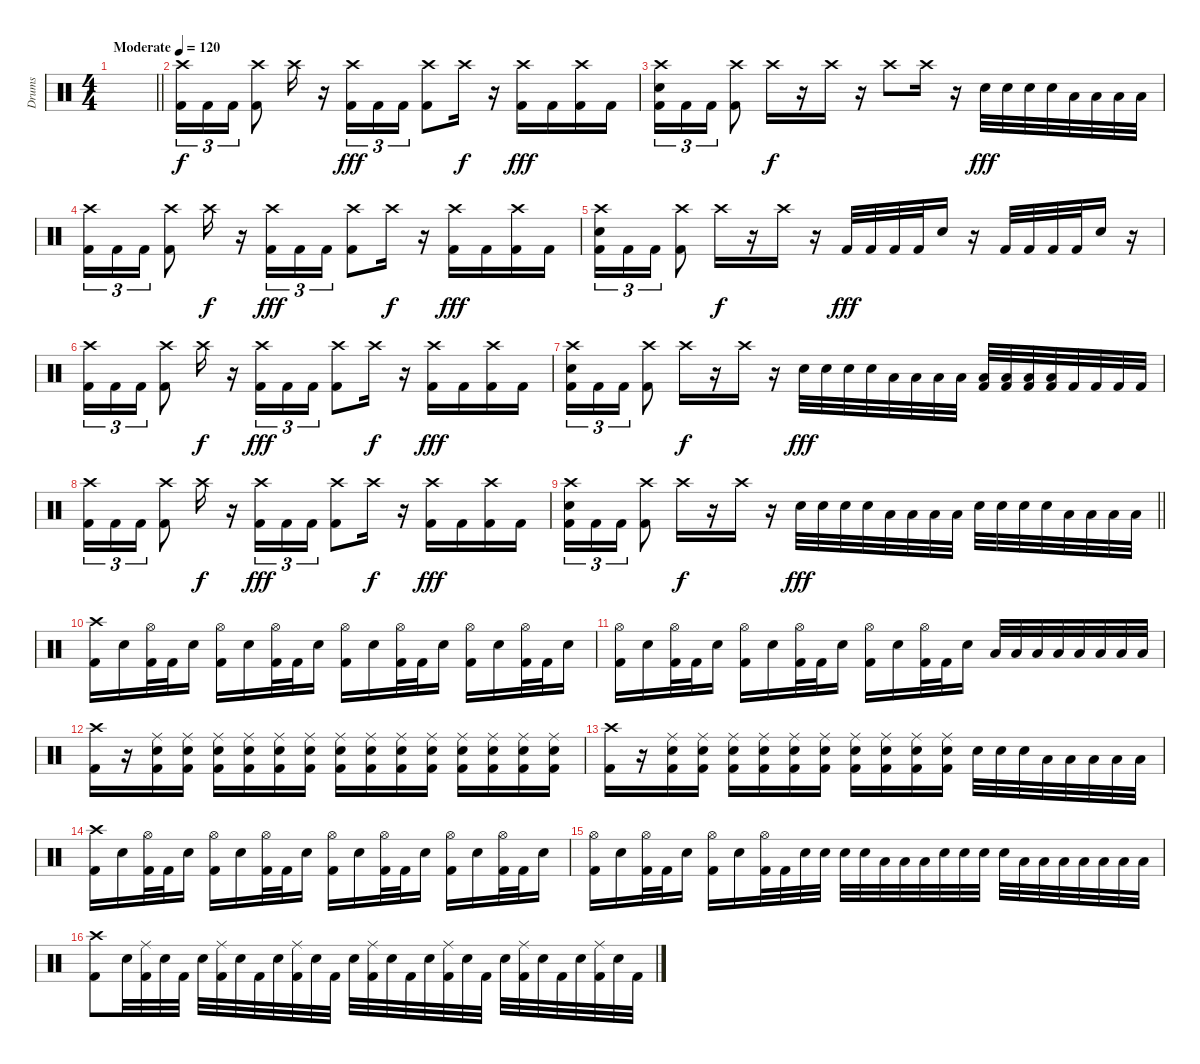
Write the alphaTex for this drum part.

\track ("Drums" "Drums") {instrument percussion}
\staff {score}
\articulation defaults
\ts (4 4)
\tempo (120 "Moderate")
\clef neutral
\barLineRight lightlight
\ks c
|
\section ("" "")
("Crash high (hit)" "Kick (hit) 2").16{tu (3 2) volume 8} "Kick (hit) 2".16{tu (3 2)} "Kick (hit) 2".16{tu (3 2)} ("Crash high (hit)" "Kick (hit) 2").8 "Crash high (hit)".16{dy f} r.16 ("Crash high (hit)" "Kick (hit) 2").16{tu (3 2) dy fff} "Kick (hit) 2".16{tu (3 2)} "Kick (hit) 2".16{tu (3 2)} ("Crash high (hit)" "Kick (hit) 2").8 "Crash high (hit)".16{dy f} r.16 ("Crash high (hit)" "Kick (hit) 2").16{dy fff} "Kick (hit) 2".16 ("Crash high (hit)" "Kick (hit) 2").16 "Kick (hit) 2".16 |
("Crash high (hit)" "Electric Snare (hit)" "Kick (hit) 2").16{tu (3 2)} "Kick (hit) 2".16{tu (3 2)} "Kick (hit) 2".16{tu (3 2)} ("Crash high (hit)" "Kick (hit) 2").8 "Crash high (hit)".16{dy f} r.16 "Crash high (hit)".16 r.16 "Crash high (hit)".8 "Crash high (hit)".16 r.16 "Electric Snare (hit)".32{dy fff} "Electric Snare (hit)".32 "Electric Snare (hit)".32 "Electric Snare (hit)".32 "Low Tom (hit)".32 "Low Tom (hit)".32 "Low Floor Tom (hit)".32 "Low Floor Tom (hit)".32 |
("Crash high (hit)" "Kick (hit) 2").16{tu (3 2)} "Kick (hit) 2".16{tu (3 2)} "Kick (hit) 2".16{tu (3 2)} ("Crash high (hit)" "Kick (hit) 2").8 "Crash high (hit)".16{dy f} r.16 ("Crash high (hit)" "Kick (hit) 2").16{tu (3 2) dy fff} "Kick (hit) 2".16{tu (3 2)} "Kick (hit) 2".16{tu (3 2)} ("Crash high (hit)" "Kick (hit) 2").8 "Crash high (hit)".16{dy f} r.16 ("Crash high (hit)" "Kick (hit) 2").16{dy fff} "Kick (hit) 2".16 ("Crash high (hit)" "Kick (hit) 2").16 "Kick (hit) 2".16 |
("Crash high (hit)" "Electric Snare (hit)" "Kick (hit) 2").16{tu (3 2)} "Kick (hit) 2".16{tu (3 2)} "Kick (hit) 2".16{tu (3 2)} ("Crash high (hit)" "Kick (hit) 2").8 "Crash high (hit)".16{dy f} r.16 "Crash high (hit)".16 r.16 "Kick (hit) 2".32{dy fff} "Kick (hit) 2".32 "Kick (hit) 2".32 "Kick (hit) 2".32 "Electric Snare (hit)".16 r.16 "Kick (hit) 2".32 "Kick (hit) 2".32 "Kick (hit) 2".32 "Kick (hit) 2".32 "Electric Snare (hit)".16 r.16 |
("Crash high (hit)" "Kick (hit) 2").16{tu (3 2) volume 13} "Kick (hit) 2".16{tu (3 2)} "Kick (hit) 2".16{tu (3 2)} ("Crash high (hit)" "Kick (hit) 2").8 "Crash high (hit)".16{dy f} r.16 ("Crash high (hit)" "Kick (hit) 2").16{tu (3 2) dy fff} "Kick (hit) 2".16{tu (3 2)} "Kick (hit) 2".16{tu (3 2)} ("Crash high (hit)" "Kick (hit) 2").8 "Crash high (hit)".16{dy f} r.16 ("Crash high (hit)" "Kick (hit) 2").16{dy fff} "Kick (hit) 2".16 ("Crash high (hit)" "Kick (hit) 2").16 "Kick (hit) 2".16 |
("Crash high (hit)" "Electric Snare (hit)" "Kick (hit) 2").16{tu (3 2)} "Kick (hit) 2".16{tu (3 2)} "Kick (hit) 2".16{tu (3 2)} ("Crash high (hit)" "Kick (hit) 2").8 "Crash high (hit)".16{dy f} r.16 "Crash high (hit)".16 r.16 "Electric Snare (hit)".32{dy fff} "Electric Snare (hit)".32 "Electric Snare (hit)".32 "Electric Snare (hit)".32 "Low Tom (hit)".32 "Low Tom (hit)".32 "Low Tom (hit)".32 "Low Tom (hit)".32 ("Low Floor Tom (hit)" "Kick (hit) 2").32 ("Low Floor Tom (hit)" "Kick (hit) 2").32 ("Low Floor Tom (hit)" "Kick (hit) 2").32 ("Low Floor Tom (hit)" "Kick (hit) 2").32 "Kick (hit) 2".32 "Kick (hit) 2".32 "Kick (hit) 2".32 "Kick (hit) 2".32 |
("Crash high (hit)" "Kick (hit) 2").16{tu (3 2)} "Kick (hit) 2".16{tu (3 2)} "Kick (hit) 2".16{tu (3 2)} ("Crash high (hit)" "Kick (hit) 2").8 "Crash high (hit)".16{dy f} r.16 ("Crash high (hit)" "Kick (hit) 2").16{tu (3 2) dy fff} "Kick (hit) 2".16{tu (3 2)} "Kick (hit) 2".16{tu (3 2)} ("Crash high (hit)" "Kick (hit) 2").8 "Crash high (hit)".16{dy f} r.16 ("Crash high (hit)" "Kick (hit) 2").16{dy fff} "Kick (hit) 2".16 ("Crash high (hit)" "Kick (hit) 2").16 "Kick (hit) 2".16 |
\barLineRight lightlight
("Crash high (hit)" "Electric Snare (hit)" "Kick (hit) 2").16{tu (3 2)} "Kick (hit) 2".16{tu (3 2)} "Kick (hit) 2".16{tu (3 2)} ("Crash high (hit)" "Kick (hit) 2").8 "Crash high (hit)".16{dy f} r.16 "Crash high (hit)".16 r.16 "Electric Snare (hit)".32{dy fff} "Electric Snare (hit)".32 "Electric Snare (hit)".32 "Electric Snare (hit)".32 "Low Tom (hit)".32 "Low Tom (hit)".32 "Low Tom (hit)".32 "Low Tom (hit)".32 "Electric Snare (hit)".32 "Electric Snare (hit)".32 "Electric Snare (hit)".32 "Electric Snare (hit)".32 "Low Tom (hit)".32 "Low Tom (hit)".32 "Low Tom (hit)".32 "Low Tom (hit)".32 |
\section ("" "")
("Crash high (hit)" "Kick (hit) 2").16 "Electric Snare (hit)".16 ("Hi-Hat (open)" "Kick (hit) 2").32 "Kick (hit) 2".32 "Electric Snare (hit)".16 ("Hi-Hat (open)" "Kick (hit) 2").16 "Electric Snare (hit)".16 ("Hi-Hat (open)" "Kick (hit) 2").32 "Kick (hit) 2".32 "Electric Snare (hit)".16 ("Hi-Hat (open)" "Kick (hit) 2").16 "Electric Snare (hit)".16 ("Hi-Hat (open)" "Kick (hit) 2").32 "Kick (hit) 2".32 "Electric Snare (hit)".16 ("Hi-Hat (open)" "Kick (hit) 2").16 "Electric Snare (hit)".16 ("Hi-Hat (open)" "Kick (hit) 2").32 "Kick (hit) 2".32 "Electric Snare (hit)".16 |
("Hi-Hat (open)" "Kick (hit) 2").16 "Electric Snare (hit)".16 ("Hi-Hat (open)" "Kick (hit) 2").32 "Kick (hit) 2".32 "Electric Snare (hit)".16 ("Hi-Hat (open)" "Kick (hit) 2").16 "Electric Snare (hit)".16 ("Hi-Hat (open)" "Kick (hit) 2").32 "Kick (hit) 2".32 "Electric Snare (hit)".16 ("Hi-Hat (open)" "Kick (hit) 2").16 "Electric Snare (hit)".16 ("Hi-Hat (open)" "Kick (hit) 2").32 "Kick (hit) 2".32 "Electric Snare (hit)".16 "Low Tom (hit)".32 "Low Tom (hit)".32 "Low Tom (hit)".32 "Low Tom (hit)".32 "Low Floor Tom (hit)".32 "Low Floor Tom (hit)".32 "Low Floor Tom (hit)".32 "Low Floor Tom (hit)".32 |
("Crash high (hit)" "Kick (hit) 2").16 r.16 ("Ride (middle)" "Electric Snare (hit)" "Kick (hit) 2").16 ("Ride (middle)" "Electric Snare (hit)" "Kick (hit) 2").16 ("Ride (middle)" "Electric Snare (hit)" "Kick (hit) 2").16 ("Ride (middle)" "Electric Snare (hit)" "Kick (hit) 2").16 ("Ride (middle)" "Electric Snare (hit)" "Kick (hit) 2").16 ("Ride (middle)" "Electric Snare (hit)" "Kick (hit) 2").16 ("Ride (middle)" "Electric Snare (hit)" "Kick (hit) 2").16 ("Ride (middle)" "Electric Snare (hit)" "Kick (hit) 2").16 ("Ride (middle)" "Electric Snare (hit)" "Kick (hit) 2").16 ("Ride (middle)" "Electric Snare (hit)" "Kick (hit) 2").16 ("Ride (middle)" "Electric Snare (hit)" "Kick (hit) 2").16 ("Ride (middle)" "Electric Snare (hit)" "Kick (hit) 2").16 ("Ride (middle)" "Electric Snare (hit)" "Kick (hit) 2").16 ("Ride (middle)" "Electric Snare (hit)" "Kick (hit) 2").16 |
("Crash high (hit)" "Kick (hit) 2").16 r.16 ("Ride (middle)" "Electric Snare (hit)" "Kick (hit) 2").16 ("Ride (middle)" "Electric Snare (hit)" "Kick (hit) 2").16 ("Ride (middle)" "Electric Snare (hit)" "Kick (hit) 2").16 ("Ride (middle)" "Electric Snare (hit)" "Kick (hit) 2").16 ("Ride (middle)" "Electric Snare (hit)" "Kick (hit) 2").16 ("Ride (middle)" "Electric Snare (hit)" "Kick (hit) 2").16 ("Ride (middle)" "Electric Snare (hit)" "Kick (hit) 2").16 ("Ride (middle)" "Electric Snare (hit)" "Kick (hit) 2").16 ("Ride (middle)" "Electric Snare (hit)" "Kick (hit) 2").16 ("Ride (middle)" "Electric Snare (hit)" "Kick (hit) 2").16 "Electric Snare (hit)".32 "Electric Snare (hit)".32 "Electric Snare (hit)".32 "Low Tom (hit)".32 "Low Tom (hit)".32 "Low Tom (hit)".32 "Low Floor Tom (hit)".32 "Low Floor Tom (hit)".32 |
("Crash high (hit)" "Kick (hit) 2").16 "Electric Snare (hit)".16 ("Hi-Hat (open)" "Kick (hit) 2").32 "Kick (hit) 2".32 "Electric Snare (hit)".16 ("Hi-Hat (open)" "Kick (hit) 2").16 "Electric Snare (hit)".16 ("Hi-Hat (open)" "Kick (hit) 2").32 "Kick (hit) 2".32 "Electric Snare (hit)".16 ("Hi-Hat (open)" "Kick (hit) 2").16 "Electric Snare (hit)".16 ("Hi-Hat (open)" "Kick (hit) 2").32 "Kick (hit) 2".32 "Electric Snare (hit)".16 ("Hi-Hat (open)" "Kick (hit) 2").16 "Electric Snare (hit)".16 ("Hi-Hat (open)" "Kick (hit) 2").32 "Kick (hit) 2".32 "Electric Snare (hit)".16 |
("Hi-Hat (open)" "Kick (hit) 2").16 "Electric Snare (hit)".16 ("Hi-Hat (open)" "Kick (hit) 2").32 "Kick (hit) 2".32 "Electric Snare (hit)".16 ("Hi-Hat (open)" "Kick (hit) 2").16 "Electric Snare (hit)".16 ("Hi-Hat (open)" "Kick (hit) 2").32 "Kick (hit) 2".32 "Electric Snare (hit)".32 "Electric Snare (hit)".32 "Electric Snare (hit)".32 "Electric Snare (hit)".32 "Low Tom (hit)".32 "Low Tom (hit)".32 "Low Tom (hit)".32 "Electric Snare (hit)".32 "Electric Snare (hit)".32 "Electric Snare (hit)".32 "Electric Snare (hit)".32 "Low Tom (hit)".32 "Low Tom (hit)".32 "Low Tom (hit)".32 "Low Floor Tom (hit)".32 "Low Floor Tom (hit)".32 "Low Floor Tom (hit)".32 "Low Floor Tom (hit)".32 |
("Crash high (hit)" "Kick (hit) 2").8 "Electric Snare (hit)".32 ("Ride (middle)" "Kick (hit) 2").32 "Electric Snare (hit)".32 "Kick (hit) 2".32 "Electric Snare (hit)".32 ("Ride (middle)" "Kick (hit) 2").32 "Electric Snare (hit)".32 "Kick (hit) 2".32 "Electric Snare (hit)".32 ("Ride (middle)" "Kick (hit) 2").32 "Electric Snare (hit)".32 "Kick (hit) 2".32 "Electric Snare (hit)".32 ("Ride (middle)" "Kick (hit) 2").32 "Electric Snare (hit)".32 "Kick (hit) 2".32 "Electric Snare (hit)".32 ("Ride (middle)" "Kick (hit) 2").32 "Electric Snare (hit)".32 "Kick (hit) 2".32 "Electric Snare (hit)".32 ("Ride (middle)" "Kick (hit) 2").32 "Electric Snare (hit)".32 "Kick (hit) 2".32 "Electric Snare (hit)".32 ("Ride (middle)" "Kick (hit) 2").32 "Electric Snare (hit)".32 "Kick (hit) 2".32
